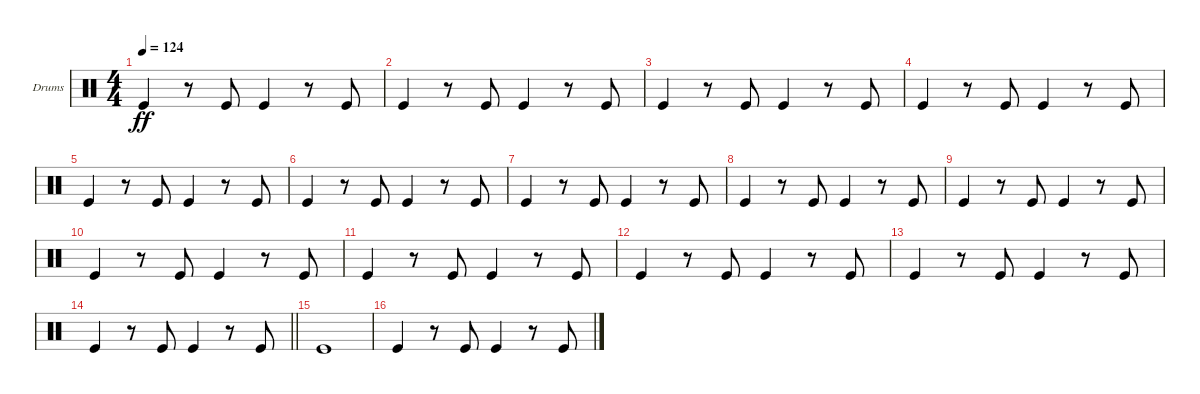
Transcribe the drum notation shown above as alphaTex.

\bracketExtendMode groupsimilarinstruments
\firstSystemTrackNameOrientation horizontal
\otherSystemsTrackNameOrientation horizontal
\track ("Kick Drum" "Drums") {instrument percussion}
\staff {score}
\articulation defaults
\ts (4 4)
\tempo 124
\clef neutral
\scale
0.333333
\ks c "Kick (hit)".4{dy ff}
r.8 "Kick (hit)".8 "Kick (hit)".4 r.8 "Kick (hit)".8 |
\scale
0.333333 "Kick (hit)".4 r.8 "Kick (hit)".8 "Kick (hit)".4 r.8 "Kick (hit)".8 |
\scale
0.333333 "Kick (hit)".4 r.8 "Kick (hit)".8 "Kick (hit)".4 r.8 "Kick (hit)".8 |
\scale
0.333333 "Kick (hit)".4 r.8 "Kick (hit)".8 "Kick (hit)".4 r.8 "Kick (hit)".8 |
\scale
0.333333 "Kick (hit)".4 r.8 "Kick (hit)".8 "Kick (hit)".4 r.8 "Kick (hit)".8 |
\scale
0.333333 "Kick (hit)".4 r.8 "Kick (hit)".8 "Kick (hit)".4 r.8 "Kick (hit)".8 |
\scale
0.333333 "Kick (hit)".4 r.8 "Kick (hit)".8 "Kick (hit)".4 r.8 "Kick (hit)".8 |
\scale
0.333333 "Kick (hit)".4 r.8 "Kick (hit)".8 "Kick (hit)".4 r.8 "Kick (hit)".8 |
\scale
0.333333 "Kick (hit)".4 r.8 "Kick (hit)".8 "Kick (hit)".4 r.8 "Kick (hit)".8 |
\scale
0.333333 "Kick (hit)".4 r.8 "Kick (hit)".8 "Kick (hit)".4 r.8 "Kick (hit)".8 |
\scale
0.333333 "Kick (hit)".4 r.8 "Kick (hit)".8 "Kick (hit)".4 r.8 "Kick (hit)".8 |
\scale
0.333333 "Kick (hit)".4 r.8 "Kick (hit)".8 "Kick (hit)".4 r.8 "Kick (hit)".8 |
\scale
0.333333 "Kick (hit)".4 r.8 "Kick (hit)".8 "Kick (hit)".4 r.8 "Kick (hit)".8 |
\scale
0.333333
\barLineRight lightlight "Kick (hit)".4
r.8 "Kick (hit)".8 "Kick (hit)".4 r.8 "Kick (hit)".8 |
\scale
0.333333 "Kick (hit)".1 |
\scale
0.333333 "Kick (hit)".4 r.8 "Kick (hit)".8 "Kick (hit)".4 r.8 "Kick (hit)".8
